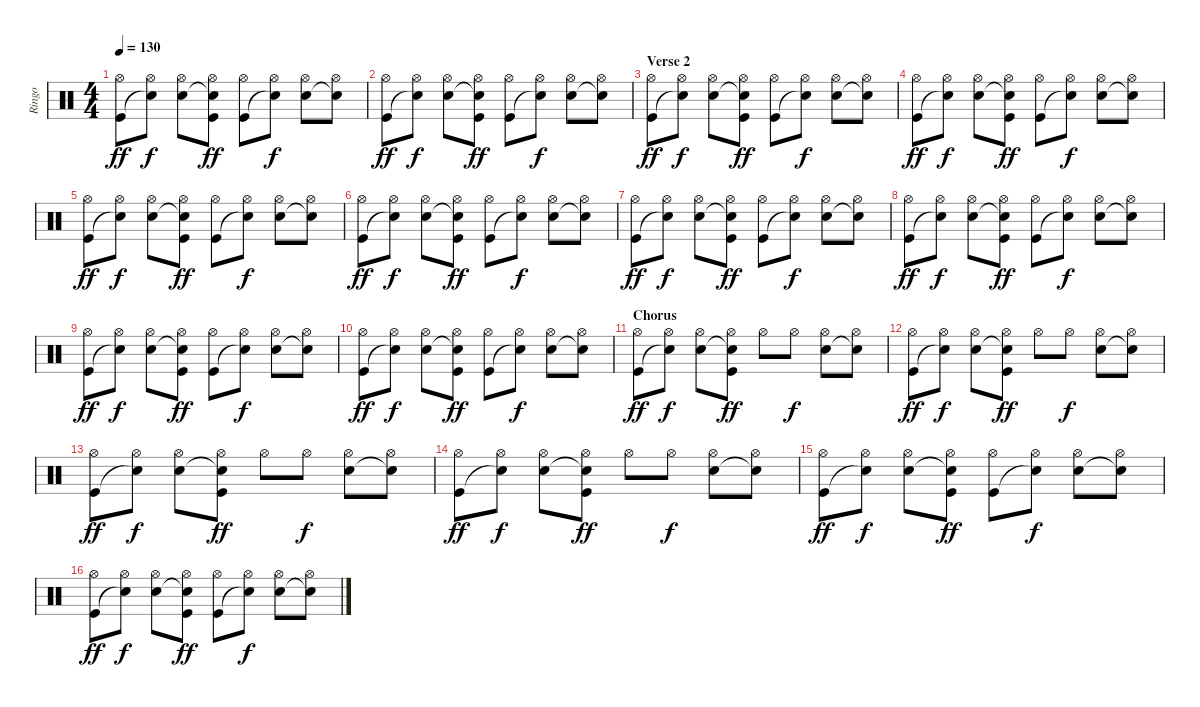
\track ("Ringo" "Ringo") {instrument percussion}
\staff {score}
\articulation defaults
\ts (4 4)
\tempo 130
\clef neutral
\ks c
("Hi-Hat (open)" "Kick (hit)").8{dy ff} ("Hi-Hat (open)" "Snare (hit)"{t}).8{dy f} ("Hi-Hat (open)" "Snare (hit) 2").8 ("Hi-Hat (open)" "Snare (hit)"{t} "Kick (hit)").8{dy ff} ("Hi-Hat (open)" "Kick (hit)").8 ("Hi-Hat (open)" "Snare (hit)"{t}).8{dy f} ("Hi-Hat (open)" "Snare (hit) 2").8 ("Hi-Hat (open)" "Snare (hit)"{t}).8 |
("Hi-Hat (open)" "Kick (hit)").8{dy ff} ("Hi-Hat (open)" "Snare (hit)"{t}).8{dy f} ("Hi-Hat (open)" "Snare (hit) 2").8 ("Hi-Hat (open)" "Snare (hit)"{t} "Kick (hit)").8{dy ff} ("Hi-Hat (open)" "Kick (hit)").8 ("Hi-Hat (open)" "Snare (hit)"{t}).8{dy f} ("Hi-Hat (open)" "Snare (hit) 2").8 ("Hi-Hat (open)" "Snare (hit)"{t}).8 |
\section ("" "Verse 2")
("Hi-Hat (open)" "Kick (hit)").8{dy ff} ("Hi-Hat (open)" "Snare (hit)"{t}).8{dy f} ("Hi-Hat (open)" "Snare (hit) 2").8 ("Hi-Hat (open)" "Snare (hit)"{t} "Kick (hit)").8{dy ff} ("Hi-Hat (open)" "Kick (hit)").8 ("Hi-Hat (open)" "Snare (hit)"{t}).8{dy f} ("Hi-Hat (open)" "Snare (hit) 2").8 ("Hi-Hat (open)" "Snare (hit)"{t}).8 |
("Hi-Hat (open)" "Kick (hit)").8{dy ff} ("Hi-Hat (open)" "Snare (hit)"{t}).8{dy f} ("Hi-Hat (open)" "Snare (hit) 2").8 ("Hi-Hat (open)" "Snare (hit)"{t} "Kick (hit)").8{dy ff} ("Hi-Hat (open)" "Kick (hit)").8 ("Hi-Hat (open)" "Snare (hit)"{t}).8{dy f} ("Hi-Hat (open)" "Snare (hit) 2").8 ("Hi-Hat (open)" "Snare (hit)"{t}).8 |
("Hi-Hat (open)" "Kick (hit)").8{dy ff} ("Hi-Hat (open)" "Snare (hit)"{t}).8{dy f} ("Hi-Hat (open)" "Snare (hit) 2").8 ("Hi-Hat (open)" "Snare (hit)"{t} "Kick (hit)").8{dy ff} ("Hi-Hat (open)" "Kick (hit)").8 ("Hi-Hat (open)" "Snare (hit)"{t}).8{dy f} ("Hi-Hat (open)" "Snare (hit) 2").8 ("Hi-Hat (open)" "Snare (hit)"{t}).8 |
("Hi-Hat (open)" "Kick (hit)").8{dy ff} ("Hi-Hat (open)" "Snare (hit)"{t}).8{dy f} ("Hi-Hat (open)" "Snare (hit) 2").8 ("Hi-Hat (open)" "Snare (hit)"{t} "Kick (hit)").8{dy ff} ("Hi-Hat (open)" "Kick (hit)").8 ("Hi-Hat (open)" "Snare (hit)"{t}).8{dy f} ("Hi-Hat (open)" "Snare (hit) 2").8 ("Hi-Hat (open)" "Snare (hit)"{t}).8 |
("Hi-Hat (open)" "Kick (hit)").8{dy ff} ("Hi-Hat (open)" "Snare (hit)"{t}).8{dy f} ("Hi-Hat (open)" "Snare (hit) 2").8 ("Hi-Hat (open)" "Snare (hit)"{t} "Kick (hit)").8{dy ff} ("Hi-Hat (open)" "Kick (hit)").8 ("Hi-Hat (open)" "Snare (hit)"{t}).8{dy f} ("Hi-Hat (open)" "Snare (hit) 2").8 ("Hi-Hat (open)" "Snare (hit)"{t}).8 |
("Hi-Hat (open)" "Kick (hit)").8{dy ff} ("Hi-Hat (open)" "Snare (hit)"{t}).8{dy f} ("Hi-Hat (open)" "Snare (hit) 2").8 ("Hi-Hat (open)" "Snare (hit)"{t} "Kick (hit)").8{dy ff} ("Hi-Hat (open)" "Kick (hit)").8 ("Hi-Hat (open)" "Snare (hit)"{t}).8{dy f} ("Hi-Hat (open)" "Snare (hit) 2").8 ("Hi-Hat (open)" "Snare (hit)"{t}).8 |
("Hi-Hat (open)" "Kick (hit)").8{dy ff} ("Hi-Hat (open)" "Snare (hit)"{t}).8{dy f} ("Hi-Hat (open)" "Snare (hit) 2").8 ("Hi-Hat (open)" "Snare (hit)"{t} "Kick (hit)").8{dy ff} ("Hi-Hat (open)" "Kick (hit)").8 ("Hi-Hat (open)" "Snare (hit)"{t}).8{dy f} ("Hi-Hat (open)" "Snare (hit) 2").8 ("Hi-Hat (open)" "Snare (hit)"{t}).8 |
("Hi-Hat (open)" "Kick (hit)").8{dy ff} ("Hi-Hat (open)" "Snare (hit)"{t}).8{dy f} ("Hi-Hat (open)" "Snare (hit) 2").8 ("Hi-Hat (open)" "Snare (hit)"{t} "Kick (hit)").8{dy ff} ("Hi-Hat (open)" "Kick (hit)").8 ("Hi-Hat (open)" "Snare (hit)"{t}).8{dy f} ("Hi-Hat (open)" "Snare (hit) 2").8 ("Hi-Hat (open)" "Snare (hit)"{t}).8 |
\section ("" "Chorus")
("Hi-Hat (open)" "Kick (hit)").8{dy ff} ("Hi-Hat (open)" "Snare (hit)"{t}).8{dy f} ("Hi-Hat (open)" "Snare (hit) 2").8 ("Hi-Hat (open)" "Snare (hit)"{t} "Kick (hit)").8{dy ff} "Hi-Hat (open)".8 "Hi-Hat (open)".8{dy f} ("Hi-Hat (open)" "Snare (hit) 2").8 ("Hi-Hat (open)" "Snare (hit)"{t}).8 |
("Hi-Hat (open)" "Kick (hit)").8{dy ff} ("Hi-Hat (open)" "Snare (hit)"{t}).8{dy f} ("Hi-Hat (open)" "Snare (hit) 2").8 ("Hi-Hat (open)" "Snare (hit)"{t} "Kick (hit)").8{dy ff} "Hi-Hat (open)".8 "Hi-Hat (open)".8{dy f} ("Hi-Hat (open)" "Snare (hit) 2").8 ("Hi-Hat (open)" "Snare (hit)"{t}).8 |
("Hi-Hat (open)" "Kick (hit)").8{dy ff} ("Hi-Hat (open)" "Snare (hit)"{t}).8{dy f} ("Hi-Hat (open)" "Snare (hit) 2").8 ("Hi-Hat (open)" "Snare (hit)"{t} "Kick (hit)").8{dy ff} "Hi-Hat (open)".8 "Hi-Hat (open)".8{dy f} ("Hi-Hat (open)" "Snare (hit) 2").8 ("Hi-Hat (open)" "Snare (hit)"{t}).8 |
("Hi-Hat (open)" "Kick (hit)").8{dy ff} ("Hi-Hat (open)" "Snare (hit)"{t}).8{dy f} ("Hi-Hat (open)" "Snare (hit) 2").8 ("Hi-Hat (open)" "Snare (hit)"{t} "Kick (hit)").8{dy ff} "Hi-Hat (open)".8 "Hi-Hat (open)".8{dy f} ("Hi-Hat (open)" "Snare (hit) 2").8 ("Hi-Hat (open)" "Snare (hit)"{t}).8 |
("Hi-Hat (open)" "Kick (hit)").8{dy ff} ("Hi-Hat (open)" "Snare (hit)"{t}).8{dy f} ("Hi-Hat (open)" "Snare (hit) 2").8 ("Hi-Hat (open)" "Snare (hit)"{t} "Kick (hit)").8{dy ff} ("Hi-Hat (open)" "Kick (hit)").8 ("Hi-Hat (open)" "Snare (hit)"{t}).8{dy f} ("Hi-Hat (open)" "Snare (hit) 2").8 ("Hi-Hat (open)" "Snare (hit)"{t}).8 |
("Hi-Hat (open)" "Kick (hit)").8{dy ff} ("Hi-Hat (open)" "Snare (hit)"{t}).8{dy f} ("Hi-Hat (open)" "Snare (hit) 2").8 ("Hi-Hat (open)" "Snare (hit)"{t} "Kick (hit)").8{dy ff} ("Hi-Hat (open)" "Kick (hit)").8 ("Hi-Hat (open)" "Snare (hit)"{t}).8{dy f} ("Hi-Hat (open)" "Snare (hit) 2").8 ("Hi-Hat (open)" "Snare (hit)"{t}).8
